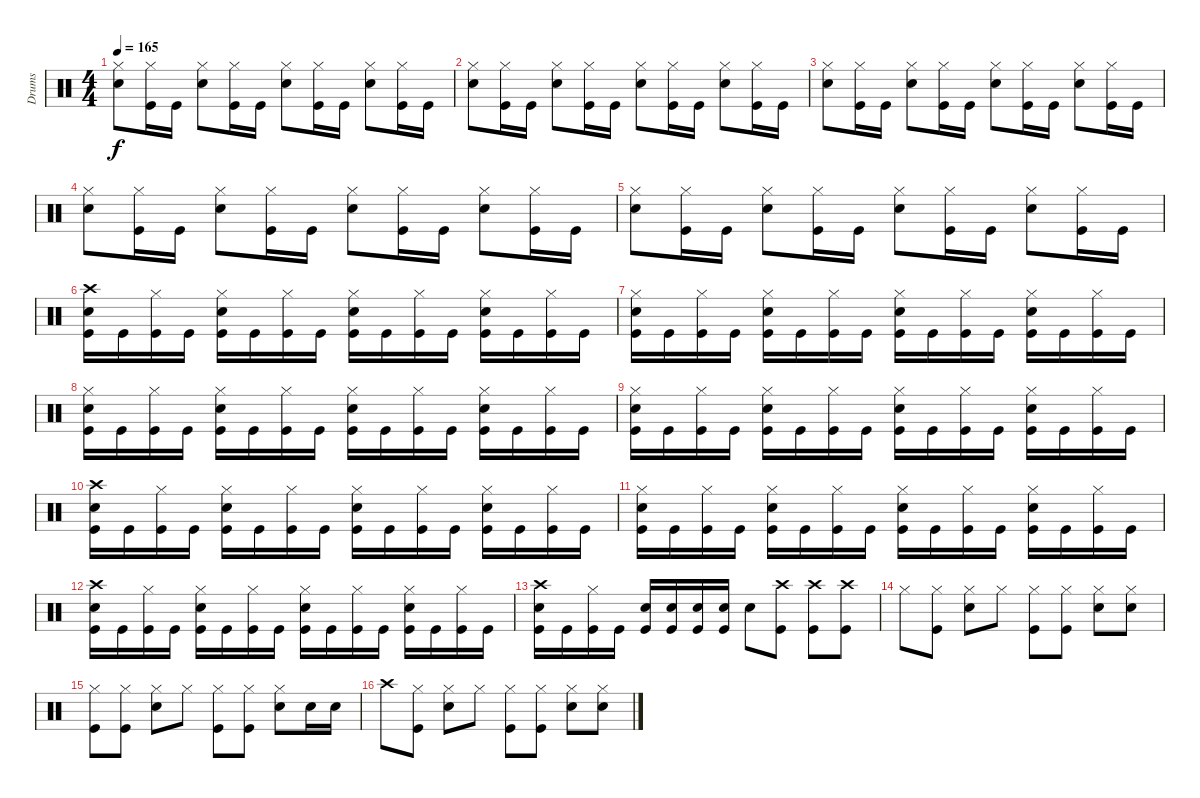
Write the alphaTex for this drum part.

\track ("Drums" "Drums") {instrument percussion}
\staff {score}
\articulation defaults
\ts (4 4)
\tempo 165
\clef neutral
\ks c
("Hi-Hat (closed)" "Snare (hit) 2").8{dy f} ("Hi-Hat (closed)" "Kick (hit)").16 "Kick (hit)".16 ("Hi-Hat (closed)" "Snare (hit) 2").8 ("Hi-Hat (closed)" "Kick (hit)").16 "Kick (hit)".16 ("Hi-Hat (closed)" "Snare (hit) 2").8 ("Hi-Hat (closed)" "Kick (hit)").16 "Kick (hit)".16 ("Hi-Hat (closed)" "Snare (hit) 2").8 ("Hi-Hat (closed)" "Kick (hit)").16 "Kick (hit)".16 |
("Hi-Hat (closed)" "Snare (hit) 2").8 ("Hi-Hat (closed)" "Kick (hit)").16 "Kick (hit)".16 ("Hi-Hat (closed)" "Snare (hit) 2").8 ("Hi-Hat (closed)" "Kick (hit)").16 "Kick (hit)".16 ("Hi-Hat (closed)" "Snare (hit) 2").8 ("Hi-Hat (closed)" "Kick (hit)").16 "Kick (hit)".16 ("Hi-Hat (closed)" "Snare (hit) 2").8 ("Hi-Hat (closed)" "Kick (hit)").16 "Kick (hit)".16 |
("Hi-Hat (closed)" "Snare (hit) 2").8 ("Hi-Hat (closed)" "Kick (hit)").16 "Kick (hit)".16 ("Hi-Hat (closed)" "Snare (hit) 2").8 ("Hi-Hat (closed)" "Kick (hit)").16 "Kick (hit)".16 ("Hi-Hat (closed)" "Snare (hit) 2").8 ("Hi-Hat (closed)" "Kick (hit)").16 "Kick (hit)".16 ("Hi-Hat (closed)" "Snare (hit) 2").8 ("Hi-Hat (closed)" "Kick (hit)").16 "Kick (hit)".16 |
("Hi-Hat (closed)" "Snare (hit) 2").8 ("Hi-Hat (closed)" "Kick (hit)").16 "Kick (hit)".16 ("Hi-Hat (closed)" "Snare (hit) 2").8 ("Hi-Hat (closed)" "Kick (hit)").16 "Kick (hit)".16 ("Hi-Hat (closed)" "Snare (hit) 2").8 ("Hi-Hat (closed)" "Kick (hit)").16 "Kick (hit)".16 ("Hi-Hat (closed)" "Snare (hit) 2").8 ("Hi-Hat (closed)" "Kick (hit)").16 "Kick (hit)".16 |
("Hi-Hat (closed)" "Snare (hit) 2").8 ("Hi-Hat (closed)" "Kick (hit)").16 "Kick (hit)".16 ("Hi-Hat (closed)" "Snare (hit) 2").8 ("Hi-Hat (closed)" "Kick (hit)").16 "Kick (hit)".16 ("Hi-Hat (closed)" "Snare (hit) 2").8 ("Hi-Hat (closed)" "Kick (hit)").16 "Kick (hit)".16 ("Hi-Hat (closed)" "Snare (hit) 2").8 ("Hi-Hat (closed)" "Kick (hit)").16 "Kick (hit)".16 |
("Crash high (hit)" "Snare (hit) 2" "Kick (hit)").16 "Kick (hit)".16 ("Hi-Hat (closed)" "Kick (hit)").16 "Kick (hit)".16 ("Hi-Hat (closed)" "Snare (hit) 2" "Kick (hit)").16 "Kick (hit)".16 ("Hi-Hat (closed)" "Kick (hit)").16 "Kick (hit)".16 ("Hi-Hat (closed)" "Snare (hit) 2" "Kick (hit)").16 "Kick (hit)".16 ("Hi-Hat (closed)" "Kick (hit)").16 "Kick (hit)".16 ("Hi-Hat (closed)" "Snare (hit) 2" "Kick (hit)").16 "Kick (hit)".16 ("Hi-Hat (closed)" "Kick (hit)").16 "Kick (hit)".16 |
("Hi-Hat (closed)" "Snare (hit) 2" "Kick (hit)").16 "Kick (hit)".16 ("Hi-Hat (closed)" "Kick (hit)").16 "Kick (hit)".16 ("Hi-Hat (closed)" "Snare (hit) 2" "Kick (hit)").16 "Kick (hit)".16 ("Hi-Hat (closed)" "Kick (hit)").16 "Kick (hit)".16 ("Hi-Hat (closed)" "Snare (hit) 2" "Kick (hit)").16 "Kick (hit)".16 ("Hi-Hat (closed)" "Kick (hit)").16 "Kick (hit)".16 ("Hi-Hat (closed)" "Snare (hit) 2" "Kick (hit)").16 "Kick (hit)".16 ("Hi-Hat (closed)" "Kick (hit)").16 "Kick (hit)".16 |
("Hi-Hat (closed)" "Snare (hit) 2" "Kick (hit)").16 "Kick (hit)".16 ("Hi-Hat (closed)" "Kick (hit)").16 "Kick (hit)".16 ("Hi-Hat (closed)" "Snare (hit) 2" "Kick (hit)").16 "Kick (hit)".16 ("Hi-Hat (closed)" "Kick (hit)").16 "Kick (hit)".16 ("Hi-Hat (closed)" "Snare (hit) 2" "Kick (hit)").16 "Kick (hit)".16 ("Hi-Hat (closed)" "Kick (hit)").16 "Kick (hit)".16 ("Hi-Hat (closed)" "Snare (hit) 2" "Kick (hit)").16 "Kick (hit)".16 ("Hi-Hat (closed)" "Kick (hit)").16 "Kick (hit)".16 |
("Hi-Hat (closed)" "Snare (hit) 2" "Kick (hit)").16 "Kick (hit)".16 ("Hi-Hat (closed)" "Kick (hit)").16 "Kick (hit)".16 ("Hi-Hat (closed)" "Snare (hit) 2" "Kick (hit)").16 "Kick (hit)".16 ("Hi-Hat (closed)" "Kick (hit)").16 "Kick (hit)".16 ("Hi-Hat (closed)" "Snare (hit) 2" "Kick (hit)").16 "Kick (hit)".16 ("Hi-Hat (closed)" "Kick (hit)").16 "Kick (hit)".16 ("Hi-Hat (closed)" "Snare (hit) 2" "Kick (hit)").16 "Kick (hit)".16 ("Hi-Hat (closed)" "Kick (hit)").16 "Kick (hit)".16 |
("Crash high (hit)" "Snare (hit) 2" "Kick (hit)").16 "Kick (hit)".16 ("Hi-Hat (closed)" "Kick (hit)").16 "Kick (hit)".16 ("Hi-Hat (closed)" "Snare (hit) 2" "Kick (hit)").16 "Kick (hit)".16 ("Hi-Hat (closed)" "Kick (hit)").16 "Kick (hit)".16 ("Hi-Hat (closed)" "Snare (hit) 2" "Kick (hit)").16 "Kick (hit)".16 ("Hi-Hat (closed)" "Kick (hit)").16 "Kick (hit)".16 ("Hi-Hat (closed)" "Snare (hit) 2" "Kick (hit)").16 "Kick (hit)".16 ("Hi-Hat (closed)" "Kick (hit)").16 "Kick (hit)".16 |
("Hi-Hat (closed)" "Snare (hit) 2" "Kick (hit)").16 "Kick (hit)".16 ("Hi-Hat (closed)" "Kick (hit)").16 "Kick (hit)".16 ("Hi-Hat (closed)" "Snare (hit) 2" "Kick (hit)").16 "Kick (hit)".16 ("Hi-Hat (closed)" "Kick (hit)").16 "Kick (hit)".16 ("Hi-Hat (closed)" "Snare (hit) 2" "Kick (hit)").16 "Kick (hit)".16 ("Hi-Hat (closed)" "Kick (hit)").16 "Kick (hit)".16 ("Hi-Hat (closed)" "Snare (hit) 2" "Kick (hit)").16 "Kick (hit)".16 ("Hi-Hat (closed)" "Kick (hit)").16 "Kick (hit)".16 |
("Crash high (hit)" "Snare (hit) 2" "Kick (hit)").16 "Kick (hit)".16 ("Hi-Hat (closed)" "Kick (hit)").16 "Kick (hit)".16 ("Hi-Hat (closed)" "Snare (hit) 2" "Kick (hit)").16 "Kick (hit)".16 ("Hi-Hat (closed)" "Kick (hit)").16 "Kick (hit)".16 ("Hi-Hat (closed)" "Snare (hit) 2" "Kick (hit)").16 "Kick (hit)".16 ("Hi-Hat (closed)" "Kick (hit)").16 "Kick (hit)".16 ("Hi-Hat (closed)" "Snare (hit) 2" "Kick (hit)").16 "Kick (hit)".16 ("Hi-Hat (closed)" "Kick (hit)").16 "Kick (hit)".16 |
("Crash high (hit)" "Snare (hit) 2" "Kick (hit)").16 "Kick (hit)".16 ("Hi-Hat (closed)" "Kick (hit)").16 "Kick (hit)".16 ("Snare (hit) 2" "Kick (hit)").16 ("Snare (hit) 2" "Kick (hit)").16 ("Snare (hit) 2" "Kick (hit)").16 ("Snare (hit) 2" "Kick (hit)").16 "Snare (hit) 2".8 ("Crash high (hit)" "Kick (hit)").8 ("Crash high (hit)" "Kick (hit)").8 ("Crash high (hit)" "Kick (hit)").8 |
"Hi-Hat (closed)".8 ("Hi-Hat (closed)" "Kick (hit)").8 ("Hi-Hat (closed)" "Snare (hit) 2").8 "Hi-Hat (closed)".8 ("Hi-Hat (closed)" "Kick (hit)").8 ("Hi-Hat (closed)" "Kick (hit)").8 ("Hi-Hat (closed)" "Snare (hit) 2").8 ("Hi-Hat (closed)" "Snare (hit) 2").8 |
("Hi-Hat (closed)" "Kick (hit)").8 ("Hi-Hat (closed)" "Kick (hit)").8 ("Hi-Hat (closed)" "Snare (hit) 2").8 "Hi-Hat (closed)".8 ("Hi-Hat (closed)" "Kick (hit)").8 ("Hi-Hat (closed)" "Kick (hit)").8 ("Hi-Hat (closed)" "Snare (hit) 2").8 "Snare (hit) 2".16 "Snare (hit) 2".16 |
"Crash high (hit)".8 ("Hi-Hat (closed)" "Kick (hit)").8 ("Hi-Hat (closed)" "Snare (hit) 2").8 "Hi-Hat (closed)".8 ("Hi-Hat (closed)" "Kick (hit)").8 ("Hi-Hat (closed)" "Kick (hit)").8 ("Hi-Hat (closed)" "Snare (hit) 2").8 ("Hi-Hat (closed)" "Snare (hit) 2").8
